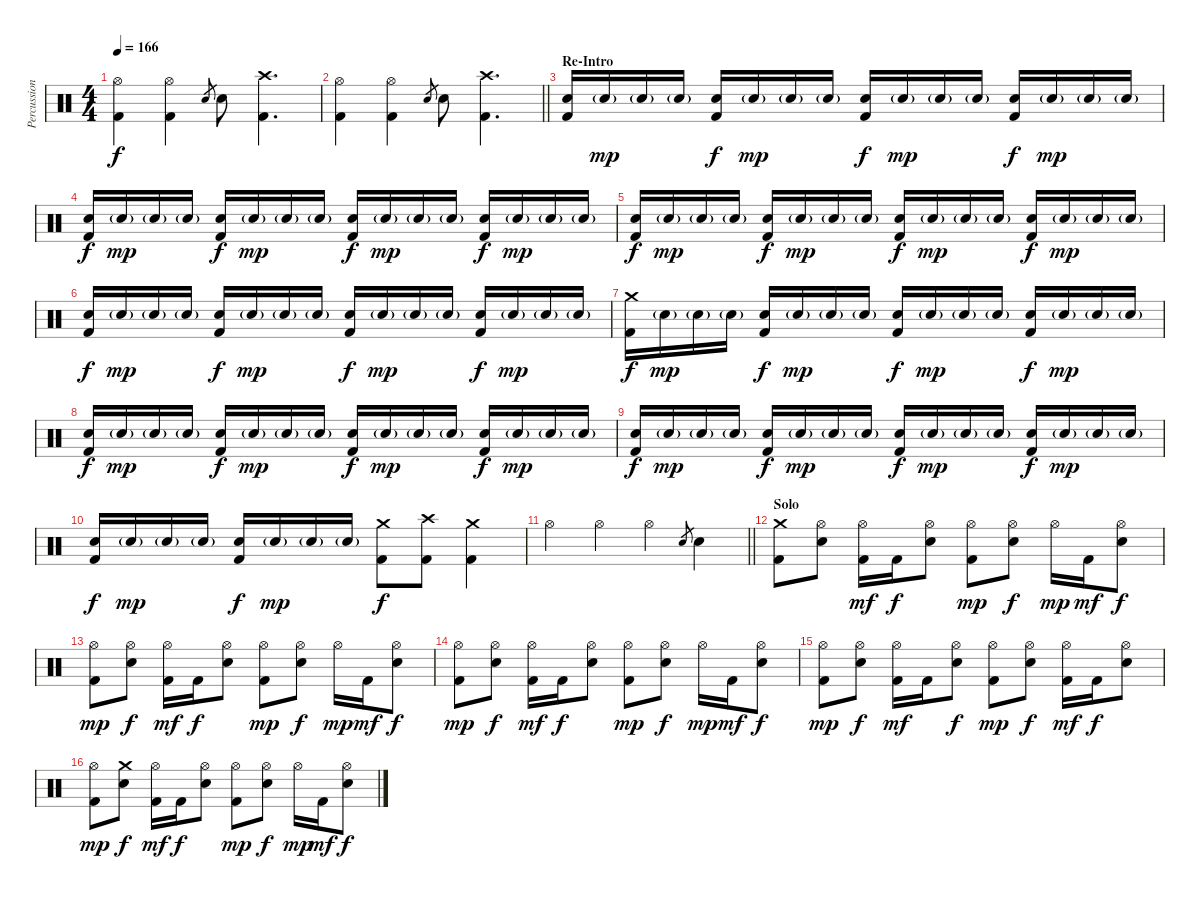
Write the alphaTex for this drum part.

\track ("Percussion" "Percussion") {instrument percussion}
\staff {score}
\articulation defaults
\ts (4 4)
\tempo 166
\clef neutral
\ks c
("Hi-Hat (open)" "Kick (hit) 2").4{dy f} ("Hi-Hat (open)" "Kick (hit) 2").4 "Electric Snare (hit)".8{gr} "Electric Snare (hit)".8 ("Crash high (hit)" "Kick (hit) 2").4{d} |
\barLineRight lightlight
("Hi-Hat (open)" "Kick (hit) 2").4 ("Hi-Hat (open)" "Kick (hit) 2").4 "Electric Snare (hit)".8{gr} "Electric Snare (hit)".8 ("Crash high (hit)" "Kick (hit) 2").4{d} |
\section ("" "Re-Intro")
("Electric Snare (hit)" "Kick (hit) 2").16 "Electric Snare (hit)"{g}.16{dy mp} "Electric Snare (hit)"{g}.16 "Electric Snare (hit)"{g}.16 ("Electric Snare (hit)" "Kick (hit) 2").16{dy f} "Electric Snare (hit)"{g}.16{dy mp} "Electric Snare (hit)"{g}.16 "Electric Snare (hit)"{g}.16 ("Electric Snare (hit)" "Kick (hit) 2").16{dy f} "Electric Snare (hit)"{g}.16{dy mp} "Electric Snare (hit)"{g}.16 "Electric Snare (hit)"{g}.16 ("Electric Snare (hit)" "Kick (hit) 2").16{dy f} "Electric Snare (hit)"{g}.16{dy mp} "Electric Snare (hit)"{g}.16 "Electric Snare (hit)"{g}.16 |
("Electric Snare (hit)" "Kick (hit) 2").16{dy f} "Electric Snare (hit)"{g}.16{dy mp} "Electric Snare (hit)"{g}.16 "Electric Snare (hit)"{g}.16 ("Electric Snare (hit)" "Kick (hit) 2").16{dy f} "Electric Snare (hit)"{g}.16{dy mp} "Electric Snare (hit)"{g}.16 "Electric Snare (hit)"{g}.16 ("Electric Snare (hit)" "Kick (hit) 2").16{dy f} "Electric Snare (hit)"{g}.16{dy mp} "Electric Snare (hit)"{g}.16 "Electric Snare (hit)"{g}.16 ("Electric Snare (hit)" "Kick (hit) 2").16{dy f} "Electric Snare (hit)"{g}.16{dy mp} "Electric Snare (hit)"{g}.16 "Electric Snare (hit)"{g}.16 |
("Electric Snare (hit)" "Kick (hit) 2").16{dy f} "Electric Snare (hit)"{g}.16{dy mp} "Electric Snare (hit)"{g}.16 "Electric Snare (hit)"{g}.16 ("Electric Snare (hit)" "Kick (hit) 2").16{dy f} "Electric Snare (hit)"{g}.16{dy mp} "Electric Snare (hit)"{g}.16 "Electric Snare (hit)"{g}.16 ("Electric Snare (hit)" "Kick (hit) 2").16{dy f} "Electric Snare (hit)"{g}.16{dy mp} "Electric Snare (hit)"{g}.16 "Electric Snare (hit)"{g}.16 ("Electric Snare (hit)" "Kick (hit) 2").16{dy f} "Electric Snare (hit)"{g}.16{dy mp} "Electric Snare (hit)"{g}.16 "Electric Snare (hit)"{g}.16 |
("Electric Snare (hit)" "Kick (hit) 2").16{dy f} "Electric Snare (hit)"{g}.16{dy mp} "Electric Snare (hit)"{g}.16 "Electric Snare (hit)"{g}.16 ("Electric Snare (hit)" "Kick (hit) 2").16{dy f} "Electric Snare (hit)"{g}.16{dy mp} "Electric Snare (hit)"{g}.16 "Electric Snare (hit)"{g}.16 ("Electric Snare (hit)" "Kick (hit) 2").16{dy f} "Electric Snare (hit)"{g}.16{dy mp} "Electric Snare (hit)"{g}.16 "Electric Snare (hit)"{g}.16 ("Electric Snare (hit)" "Kick (hit) 2").16{dy f} "Electric Snare (hit)"{g}.16{dy mp} "Electric Snare (hit)"{g}.16 "Electric Snare (hit)"{g}.16 |
("Crash medium (hit)" "Kick (hit) 2").16{dy f} "Electric Snare (hit)"{g}.16{dy mp} "Electric Snare (hit)"{g}.16 "Electric Snare (hit)"{g}.16 ("Electric Snare (hit)" "Kick (hit) 2").16{dy f} "Electric Snare (hit)"{g}.16{dy mp} "Electric Snare (hit)"{g}.16 "Electric Snare (hit)"{g}.16 ("Electric Snare (hit)" "Kick (hit) 2").16{dy f} "Electric Snare (hit)"{g}.16{dy mp} "Electric Snare (hit)"{g}.16 "Electric Snare (hit)"{g}.16 ("Electric Snare (hit)" "Kick (hit) 2").16{dy f} "Electric Snare (hit)"{g}.16{dy mp} "Electric Snare (hit)"{g}.16 "Electric Snare (hit)"{g}.16 |
("Electric Snare (hit)" "Kick (hit) 2").16{dy f} "Electric Snare (hit)"{g}.16{dy mp} "Electric Snare (hit)"{g}.16 "Electric Snare (hit)"{g}.16 ("Electric Snare (hit)" "Kick (hit) 2").16{dy f} "Electric Snare (hit)"{g}.16{dy mp} "Electric Snare (hit)"{g}.16 "Electric Snare (hit)"{g}.16 ("Electric Snare (hit)" "Kick (hit) 2").16{dy f} "Electric Snare (hit)"{g}.16{dy mp} "Electric Snare (hit)"{g}.16 "Electric Snare (hit)"{g}.16 ("Electric Snare (hit)" "Kick (hit) 2").16{dy f} "Electric Snare (hit)"{g}.16{dy mp} "Electric Snare (hit)"{g}.16 "Electric Snare (hit)"{g}.16 |
("Electric Snare (hit)" "Kick (hit) 2").16{dy f} "Electric Snare (hit)"{g}.16{dy mp} "Electric Snare (hit)"{g}.16 "Electric Snare (hit)"{g}.16 ("Electric Snare (hit)" "Kick (hit) 2").16{dy f} "Electric Snare (hit)"{g}.16{dy mp} "Electric Snare (hit)"{g}.16 "Electric Snare (hit)"{g}.16 ("Electric Snare (hit)" "Kick (hit) 2").16{dy f} "Electric Snare (hit)"{g}.16{dy mp} "Electric Snare (hit)"{g}.16 "Electric Snare (hit)"{g}.16 ("Electric Snare (hit)" "Kick (hit) 2").16{dy f} "Electric Snare (hit)"{g}.16{dy mp} "Electric Snare (hit)"{g}.16 "Electric Snare (hit)"{g}.16 |
("Electric Snare (hit)" "Kick (hit) 2").16{dy f} "Electric Snare (hit)"{g}.16{dy mp} "Electric Snare (hit)"{g}.16 "Electric Snare (hit)"{g}.16 ("Electric Snare (hit)" "Kick (hit) 2").16{dy f} "Electric Snare (hit)"{g}.16{dy mp} "Electric Snare (hit)"{g}.16 "Electric Snare (hit)"{g}.16 ("Crash medium (hit)" "Kick (hit) 2").8{dy f} ("Crash high (hit)" "Kick (hit) 2").8 ("Crash medium (hit)" "Kick (hit) 2").4 |
\barLineRight lightlight "Hi-Hat (open)".4 "Hi-Hat (open)".4 "Hi-Hat (open)".4 "Electric Snare (hit)".8{gr} "Electric Snare (hit)".4
|
\section ("" "Solo")
("Crash medium (hit)" "Kick (hit) 2").8 ("Hi-Hat (open)" "Electric Snare (hit)").8 ("Hi-Hat (open)" "Kick (hit) 2").16{dy mf} "Kick (hit) 2".16{dy f} ("Hi-Hat (open)" "Electric Snare (hit)").8 ("Hi-Hat (open)" "Kick (hit) 2").8{dy mp} ("Hi-Hat (open)" "Electric Snare (hit)").8{dy f} "Hi-Hat (open)".16{dy mp} "Kick (hit) 2".16{dy mf} ("Hi-Hat (open)" "Electric Snare (hit)").8{dy f} |
("Hi-Hat (open)" "Kick (hit) 2").8{dy mp} ("Hi-Hat (open)" "Electric Snare (hit)").8{dy f} ("Hi-Hat (open)" "Kick (hit) 2").16{dy mf} "Kick (hit) 2".16{dy f} ("Hi-Hat (open)" "Electric Snare (hit)").8 ("Hi-Hat (open)" "Kick (hit) 2").8{dy mp} ("Hi-Hat (open)" "Electric Snare (hit)").8{dy f} "Hi-Hat (open)".16{dy mp} "Kick (hit) 2".16{dy mf} ("Hi-Hat (open)" "Electric Snare (hit)").8{dy f} |
("Hi-Hat (open)" "Kick (hit) 2").8{dy mp} ("Hi-Hat (open)" "Electric Snare (hit)").8{dy f} ("Hi-Hat (open)" "Kick (hit) 2").16{dy mf} "Kick (hit) 2".16{dy f} ("Hi-Hat (open)" "Electric Snare (hit)").8 ("Hi-Hat (open)" "Kick (hit) 2").8{dy mp} ("Hi-Hat (open)" "Electric Snare (hit)").8{dy f} "Hi-Hat (open)".16{dy mp} "Kick (hit) 2".16{dy mf} ("Hi-Hat (open)" "Electric Snare (hit)").8{dy f} |
("Hi-Hat (open)" "Kick (hit) 2").8{dy mp} ("Hi-Hat (open)" "Electric Snare (hit)").8{dy f} ("Hi-Hat (open)" "Kick (hit) 2").16{dy mf} "Kick (hit) 2".16 ("Hi-Hat (open)" "Electric Snare (hit)").8{dy f} ("Hi-Hat (open)" "Kick (hit) 2").8{dy mp} ("Hi-Hat (open)" "Electric Snare (hit)").8{dy f} ("Hi-Hat (open)" "Kick (hit) 2").16{dy mf} "Kick (hit) 2".16{dy f} ("Hi-Hat (open)" "Electric Snare (hit)").8 |
("Hi-Hat (open)" "Kick (hit) 2").8{dy mp} ("Crash medium (hit)" "Electric Snare (hit)").8{dy f} ("Hi-Hat (open)" "Kick (hit) 2").16{dy mf} "Kick (hit) 2".16{dy f} ("Hi-Hat (open)" "Electric Snare (hit)").8 ("Hi-Hat (open)" "Kick (hit) 2").8{dy mp} ("Hi-Hat (open)" "Electric Snare (hit)").8{dy f} "Hi-Hat (open)".16{dy mp} "Kick (hit) 2".16{dy mf} ("Hi-Hat (open)" "Electric Snare (hit)").8{dy f}
